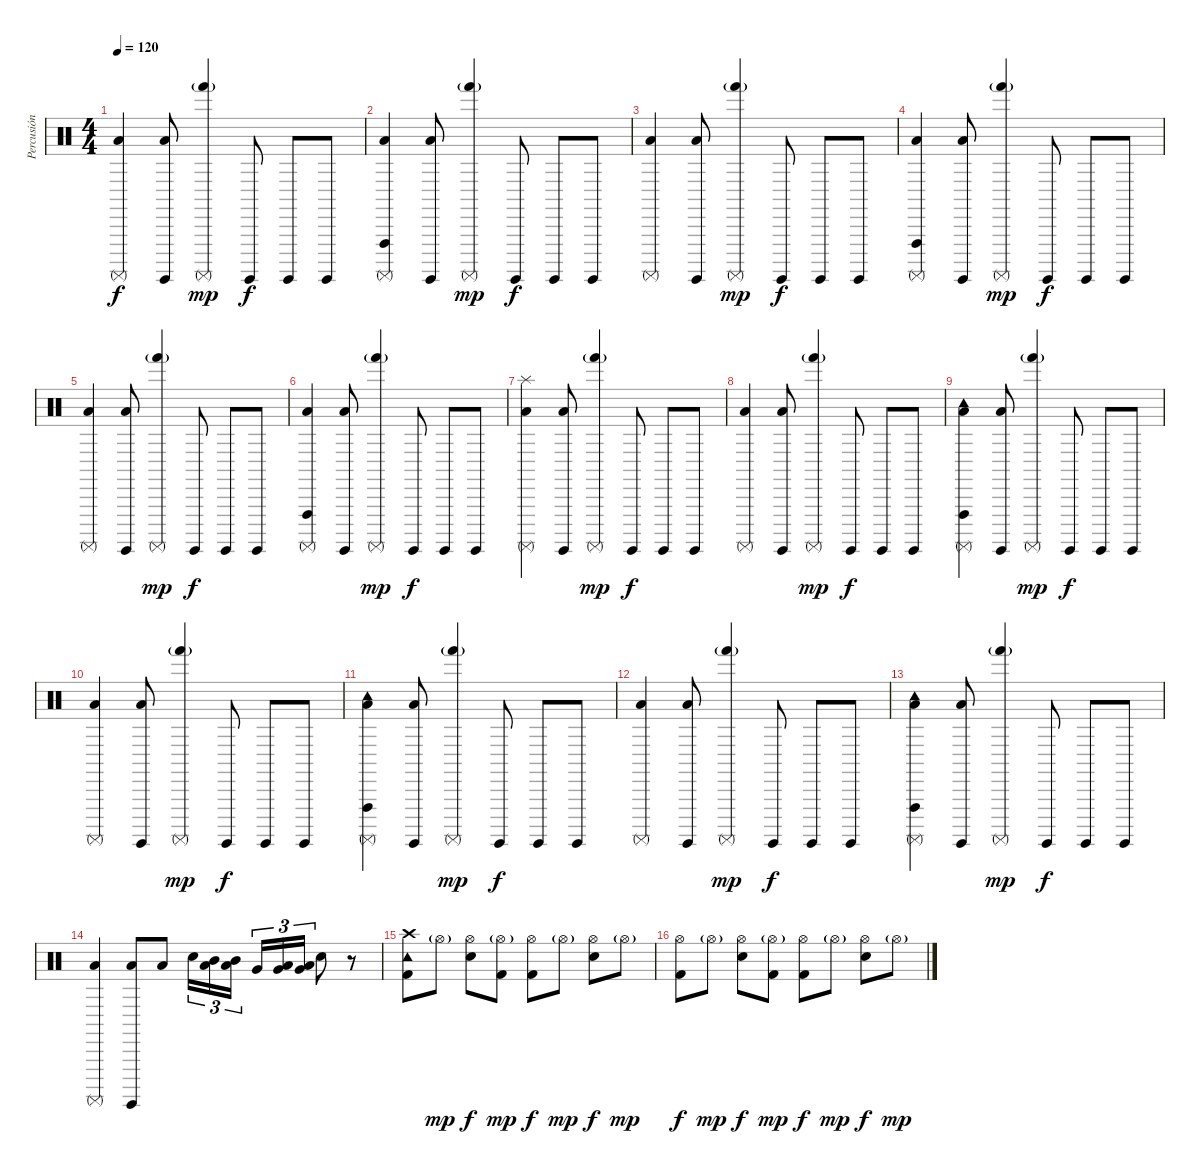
\track ("Percusión" "Percusión") {instrument percussion}
\staff {score}
\articulation defaults
\ts (4 4)
\tempo 120
\clef neutral
\ks c
("Low Floor Tom (hit)" "Surdo (mute)").4{dy f} ("Low Floor Tom (hit)" "Surdo (hit)").8 ("Surdo (mute)" "Hand (hit)"{g}).4{dy mp} "Surdo (hit)".8{dy f} "Surdo (hit)".8 "Surdo (hit)".8 |
("Vibraslap (hit)" "Low Floor Tom (hit)" "Surdo (mute)").4 ("Low Floor Tom (hit)" "Surdo (hit)").8 ("Surdo (mute)" "Hand (hit)"{g}).4{dy mp} "Surdo (hit)".8{dy f} "Surdo (hit)".8 "Surdo (hit)".8 |
("Low Floor Tom (hit)" "Surdo (mute)").4 ("Low Floor Tom (hit)" "Surdo (hit)").8 ("Surdo (mute)" "Hand (hit)"{g}).4{dy mp} "Surdo (hit)".8{dy f} "Surdo (hit)".8 "Surdo (hit)".8 |
("Vibraslap (hit)" "Low Floor Tom (hit)" "Surdo (mute)").4 ("Low Floor Tom (hit)" "Surdo (hit)").8 ("Surdo (mute)" "Hand (hit)"{g}).4{dy mp} "Surdo (hit)".8{dy f} "Surdo (hit)".8 "Surdo (hit)".8 |
("Low Floor Tom (hit)" "Surdo (mute)").4 ("Low Floor Tom (hit)" "Surdo (hit)").8 ("Surdo (mute)" "Hand (hit)"{g}).4{dy mp} "Surdo (hit)".8{dy f} "Surdo (hit)".8 "Surdo (hit)".8 |
("Vibraslap (hit)" "Low Floor Tom (hit)" "Surdo (mute)").4 ("Low Floor Tom (hit)" "Surdo (hit)").8 ("Surdo (mute)" "Hand (hit)"{g}).4{dy mp} "Surdo (hit)".8{dy f} "Surdo (hit)".8 "Surdo (hit)".8 |
("Splash (hit)" "Low Floor Tom (hit)" "Surdo (mute)").4 ("Low Floor Tom (hit)" "Surdo (hit)").8 ("Surdo (mute)" "Hand (hit)"{g}).4{dy mp} "Surdo (hit)".8{dy f} "Surdo (hit)".8 "Surdo (hit)".8 |
("Low Floor Tom (hit)" "Surdo (mute)").4 ("Low Floor Tom (hit)" "Surdo (hit)").8 ("Surdo (mute)" "Hand (hit)"{g}).4{dy mp} "Surdo (hit)".8{dy f} "Surdo (hit)".8 "Surdo (hit)".8 |
("Vibraslap (hit)" "Tambourine (hit)" "Low Floor Tom (hit)" "Surdo (mute)").4 ("Low Floor Tom (hit)" "Surdo (hit)").8 ("Surdo (mute)" "Hand (hit)"{g}).4{dy mp} "Surdo (hit)".8{dy f} "Surdo (hit)".8 "Surdo (hit)".8 |
("Low Floor Tom (hit)" "Surdo (mute)").4 ("Low Floor Tom (hit)" "Surdo (hit)").8 ("Surdo (mute)" "Hand (hit)"{g}).4{dy mp} "Surdo (hit)".8{dy f} "Surdo (hit)".8 "Surdo (hit)".8 |
("Vibraslap (hit)" "Tambourine (hit)" "Low Floor Tom (hit)" "Surdo (mute)").4 ("Low Floor Tom (hit)" "Surdo (hit)").8 ("Surdo (mute)" "Hand (hit)"{g}).4{dy mp} "Surdo (hit)".8{dy f} "Surdo (hit)".8 "Surdo (hit)".8 |
("Low Floor Tom (hit)" "Surdo (mute)").4 ("Low Floor Tom (hit)" "Surdo (hit)").8 ("Surdo (mute)" "Hand (hit)"{g}).4{dy mp} "Surdo (hit)".8{dy f} "Surdo (hit)".8 "Surdo (hit)".8 |
("Vibraslap (hit)" "Tambourine (hit)" "Low Floor Tom (hit)" "Surdo (mute)").4 ("Low Floor Tom (hit)" "Surdo (hit)").8 ("Surdo (mute)" "Hand (hit)"{g}).4{dy mp} "Surdo (hit)".8{dy f} "Surdo (hit)".8 "Surdo (hit)".8 |
("Low Floor Tom (hit)" "Surdo (mute)").4 ("Low Floor Tom (hit)" "Surdo (hit)").8 "Low Floor Tom (hit)".8 "Snare (hit) 2".16{tu (3 2)} ("Low Floor Tom (hit)" "Mid Tom (hit)").16{tu (3 2)} ("Low Floor Tom (hit)" "Mid Tom (hit)").16{tu (3 2) beam splitsecondary} "Very Low Tom (hit)".16{tu (3 2)} ("Low Floor Tom (hit)" "Very Low Tom (hit)").16{tu (3 2)} ("Low Floor Tom (hit)" "Very Low Tom (hit)").16{tu (3 2)} "Snare (hit) 2".8 r.8 |
("Crash high (hit)" "Tambourine (hit)" "Kick (hit) 2").8 "Hi-Hat (open)"{g}.8{dy mp} ("Hi-Hat (open)" "Snare (hit) 2").8{dy f} ("Hi-Hat (open)"{g} "Kick (hit) 2").8{dy mp} ("Hi-Hat (open)" "Kick (hit) 2").8{dy f} "Hi-Hat (open)"{g}.8{dy mp} ("Hi-Hat (open)" "Snare (hit) 2").8{dy f} "Hi-Hat (open)"{g}.8{dy mp} |
("Hi-Hat (open)" "Kick (hit) 2").8{dy f} "Hi-Hat (open)"{g}.8{dy mp} ("Hi-Hat (open)" "Snare (hit) 2").8{dy f} ("Hi-Hat (open)"{g} "Kick (hit) 2").8{dy mp} ("Hi-Hat (open)" "Kick (hit) 2").8{dy f} "Hi-Hat (open)"{g}.8{dy mp} ("Hi-Hat (open)" "Snare (hit) 2").8{dy f} "Hi-Hat (open)"{g}.8{dy mp}
